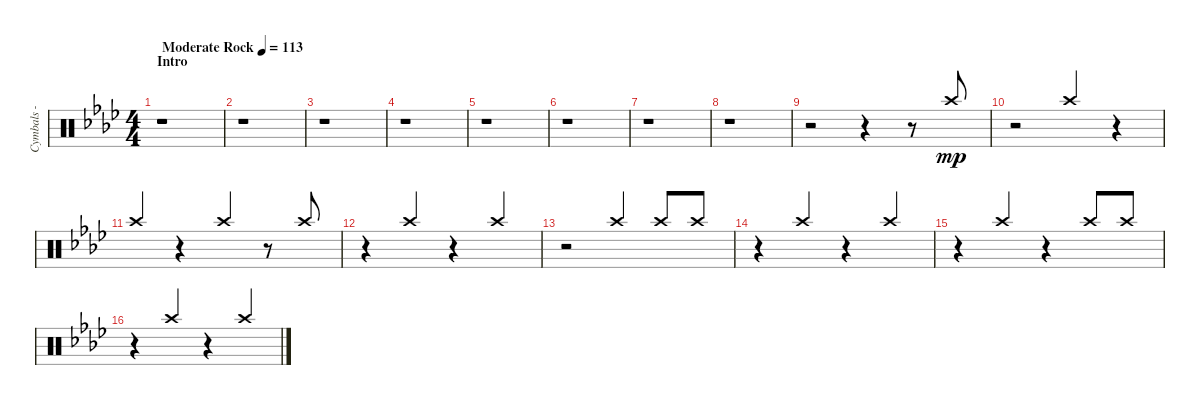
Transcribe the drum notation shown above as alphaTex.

\track ("Cymbals - crash" "Cymbals - ") {instrument percussion}
\staff {score}
\articulation defaults
\ts (4 4)
\section ("" "Intro")
\tempo (113 "Moderate Rock")
\clef neutral
\ks fminor
r.1{dy mp} |
r.1 |
r.1 |
r.1 |
r.1 |
r.1 |
r.1 |
r.1 |
r.2 r.4 r.8 "Crash high (hit)".8{beam Up} |
r.2{beam Up} "Crash high (hit)".4{beam Up} r.4{beam Up} |
"Crash high (hit)".4{beam Up} r.4{beam Up} "Crash high (hit)".4{beam Up} r.8{beam Up} "Crash high (hit)".8{beam Up} |
r.4 "Crash high (hit)".4{beam Up} r.4{beam Up} "Crash high (hit)".4{beam Up} |
r.2{beam Up} "Crash high (hit)".4{beam Up} "Crash high (hit)".8{beam Up} "Crash high (hit)".8{beam Up} |
r.4 "Crash high (hit)".4{beam Up} r.4{beam Up} "Crash high (hit)".4{beam Up} |
r.4{beam Up} "Crash high (hit)".4{beam Up} r.4{beam Up} "Crash high (hit)".8{beam Up} "Crash high (hit)".8{beam Up} |
r.4 "Crash high (hit)".4{beam Up} r.4{beam Up} "Crash high (hit)".4{beam Up}
